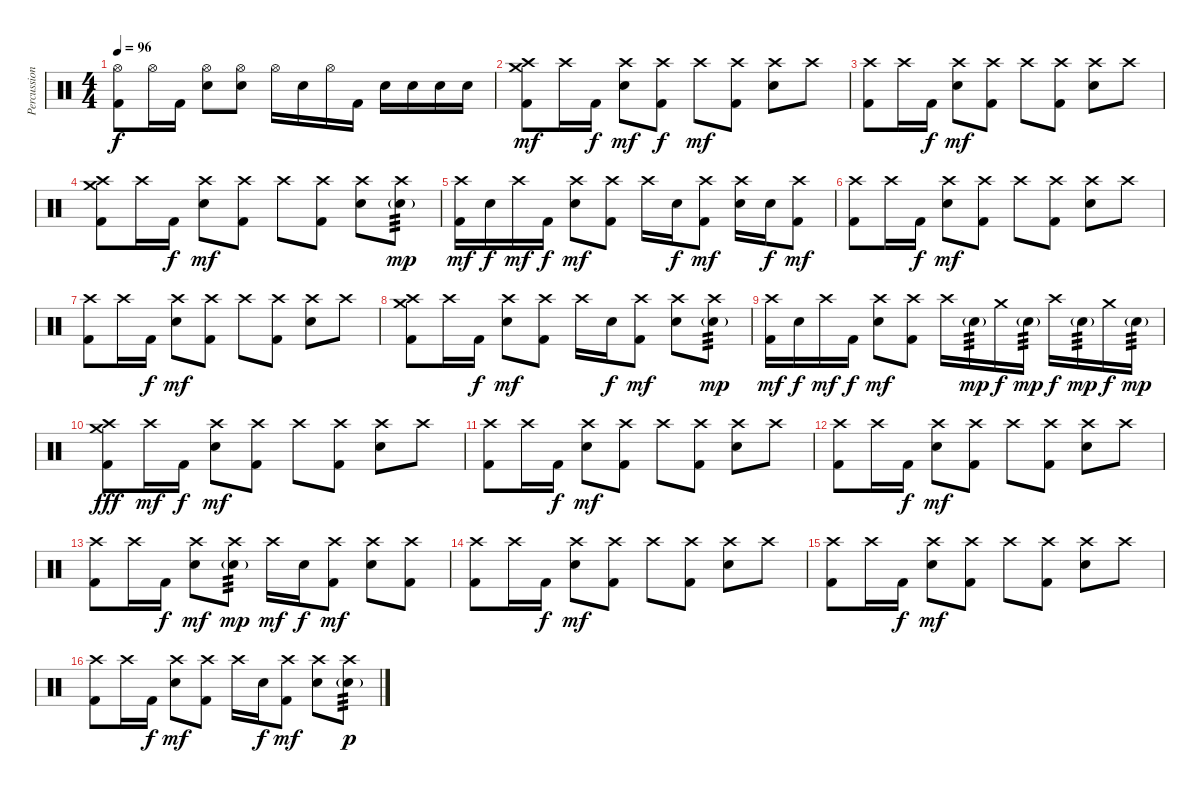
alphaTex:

\track ("Percussion" "Percussion") {instrument percussion}
\staff {score}
\articulation defaults
\ts (4 4)
\tempo 96
\clef neutral
\ks c
("Hi-Hat (open)" "Kick (hit) 2").8{dy f} "Hi-Hat (open)".16 "Kick (hit) 2".16 ("Hi-Hat (open)" "Snare (hit) 2").8 ("Hi-Hat (open)" "Snare (hit) 2").8 "Hi-Hat (open)".16 "Snare (hit) 2".16 "Hi-Hat (open)".16 "Kick (hit) 2".16 "Snare (hit) 2".16 "Snare (hit) 2".16 "Snare (hit) 2".16 "Snare (hit) 2".16 |
("Crash medium (hit)" "Crash high (hit)" "Kick (hit) 2").8{dy mf} "Crash high (hit)".16 "Kick (hit) 2".16{dy f} ("Crash high (hit)" "Snare (hit) 2").8{dy mf} ("Crash high (hit)" "Kick (hit) 2").8{dy f} "Crash high (hit)".8{dy mf} ("Crash high (hit)" "Kick (hit) 2").8 ("Crash high (hit)" "Snare (hit) 2").8 "Crash high (hit)".8 |
("Crash high (hit)" "Kick (hit) 2").8 "Crash high (hit)".16 "Kick (hit) 2".16{dy f} ("Crash high (hit)" "Snare (hit) 2").8{dy mf} ("Crash high (hit)" "Kick (hit) 2").8 "Crash high (hit)".8 ("Crash high (hit)" "Kick (hit) 2").8 ("Crash high (hit)" "Snare (hit) 2").8 "Crash high (hit)".8 |
("Crash high (hit)" "Crash medium (hit)" "Kick (hit) 2").8 "Crash high (hit)".16 "Kick (hit) 2".16{dy f} ("Crash high (hit)" "Snare (hit) 2").8{dy mf} ("Crash high (hit)" "Kick (hit) 2").8 "Crash high (hit)".8 ("Crash high (hit)" "Kick (hit) 2").8 ("Crash high (hit)" "Snare (hit) 2").8 ("Crash high (hit)" "Snare (hit) 2"{g}).8{tp 3 dy mp} |
("Crash high (hit)" "Kick (hit) 2").16{dy mf} "Snare (hit) 2".16{dy f} "Crash high (hit)".16{dy mf} "Kick (hit) 2".16{dy f} ("Crash high (hit)" "Snare (hit) 2").8{dy mf} ("Crash high (hit)" "Kick (hit) 2").8 "Crash high (hit)".16 "Snare (hit) 2".16{dy f} ("Crash high (hit)" "Kick (hit) 2").8{dy mf} ("Crash high (hit)" "Snare (hit) 2").16 "Snare (hit) 2".16{dy f} ("Crash high (hit)" "Kick (hit) 2").8{dy mf} |
("Crash high (hit)" "Kick (hit) 2").8 "Crash high (hit)".16 "Kick (hit) 2".16{dy f} ("Crash high (hit)" "Snare (hit) 2").8{dy mf} ("Crash high (hit)" "Kick (hit) 2").8 "Crash high (hit)".8 ("Crash high (hit)" "Kick (hit) 2").8 ("Crash high (hit)" "Snare (hit) 2").8 "Crash high (hit)".8 |
("Crash high (hit)" "Kick (hit) 2").8 "Crash high (hit)".16 "Kick (hit) 2".16{dy f} ("Crash high (hit)" "Snare (hit) 2").8{dy mf} ("Crash high (hit)" "Kick (hit) 2").8 "Crash high (hit)".8 ("Crash high (hit)" "Kick (hit) 2").8 ("Crash high (hit)" "Snare (hit) 2").8 "Crash high (hit)".8 |
("Crash high (hit)" "Crash medium (hit)" "Kick (hit) 2").8 "Crash high (hit)".16 "Kick (hit) 2".16{dy f} ("Crash high (hit)" "Snare (hit) 2").8{dy mf} ("Crash high (hit)" "Kick (hit) 2").8 "Crash high (hit)".16 "Snare (hit) 2".16{dy f} ("Crash high (hit)" "Kick (hit) 2").8{dy mf} ("Crash high (hit)" "Snare (hit) 2").8 ("Crash high (hit)" "Snare (hit) 2"{g}).8{tp 3 dy mp} |
("Crash high (hit)" "Kick (hit) 2").16{dy mf} "Snare (hit) 2".16{dy f} "Crash high (hit)".16{dy mf} "Kick (hit) 2".16{dy f} ("Crash high (hit)" "Snare (hit) 2").8{dy mf} ("Crash high (hit)" "Kick (hit) 2").8 "Crash high (hit)".16 "Snare (hit) 2"{g}.16{tp 3 dy mp} "Crash medium (hit)".16{dy f} "Snare (hit) 2"{g}.16{tp 3 dy mp} "Crash high (hit)".16{dy f} "Snare (hit) 2"{g}.16{tp 3 dy mp} "Crash medium (hit)".16{dy f} "Snare (hit) 2"{g}.16{tp 3 dy mp} |
("Crash medium (hit)" "Crash high (hit)" "Kick (hit) 2").8{dy fff} "Crash high (hit)".16{dy mf} "Kick (hit) 2".16{dy f} ("Crash high (hit)" "Snare (hit) 2").8{dy mf} ("Crash high (hit)" "Kick (hit) 2").8 "Crash high (hit)".8 ("Crash high (hit)" "Kick (hit) 2").8 ("Crash high (hit)" "Snare (hit) 2").8 "Crash high (hit)".8 |
("Crash high (hit)" "Kick (hit) 2").8 "Crash high (hit)".16 "Kick (hit) 2".16{dy f} ("Crash high (hit)" "Snare (hit) 2").8{dy mf} ("Crash high (hit)" "Kick (hit) 2").8 "Crash high (hit)".8 ("Crash high (hit)" "Kick (hit) 2").8 ("Crash high (hit)" "Snare (hit) 2").8 "Crash high (hit)".8 |
("Crash high (hit)" "Kick (hit) 2").8 "Crash high (hit)".16 "Kick (hit) 2".16{dy f} ("Crash high (hit)" "Snare (hit) 2").8{dy mf} ("Crash high (hit)" "Kick (hit) 2").8 "Crash high (hit)".8 ("Crash high (hit)" "Kick (hit) 2").8 ("Crash high (hit)" "Snare (hit) 2").8 "Crash high (hit)".8 |
("Crash high (hit)" "Kick (hit) 2").8 "Crash high (hit)".16 "Kick (hit) 2".16{dy f} ("Crash high (hit)" "Snare (hit) 2").8{dy mf} ("Crash high (hit)" "Snare (hit) 2"{g}).8{tp 3 dy mp} "Crash high (hit)".16{dy mf} "Snare (hit) 2".16{dy f} ("Crash high (hit)" "Kick (hit) 2").8{dy mf} ("Crash high (hit)" "Snare (hit) 2").8 ("Crash high (hit)" "Kick (hit) 2").8 |
("Crash high (hit)" "Kick (hit) 2").8 "Crash high (hit)".16 "Kick (hit) 2".16{dy f} ("Crash high (hit)" "Snare (hit) 2").8{dy mf} ("Crash high (hit)" "Kick (hit) 2").8 "Crash high (hit)".8 ("Crash high (hit)" "Kick (hit) 2").8 ("Crash high (hit)" "Snare (hit) 2").8 "Crash high (hit)".8 |
("Crash high (hit)" "Kick (hit) 2").8 "Crash high (hit)".16 "Kick (hit) 2".16{dy f} ("Crash high (hit)" "Snare (hit) 2").8{dy mf} ("Crash high (hit)" "Kick (hit) 2").8 "Crash high (hit)".8 ("Crash high (hit)" "Kick (hit) 2").8 ("Crash high (hit)" "Snare (hit) 2").8 "Crash high (hit)".8 |
("Crash high (hit)" "Kick (hit) 2").8 "Crash high (hit)".16 "Kick (hit) 2".16{dy f} ("Crash high (hit)" "Snare (hit) 2").8{dy mf} ("Crash high (hit)" "Kick (hit) 2").8 "Crash high (hit)".16 "Snare (hit) 2".16{dy f} ("Crash high (hit)" "Kick (hit) 2").8{dy mf} ("Crash high (hit)" "Snare (hit) 2").8 ("Crash high (hit)" "Snare (hit) 2"{g}).8{tp 3 dy p}
